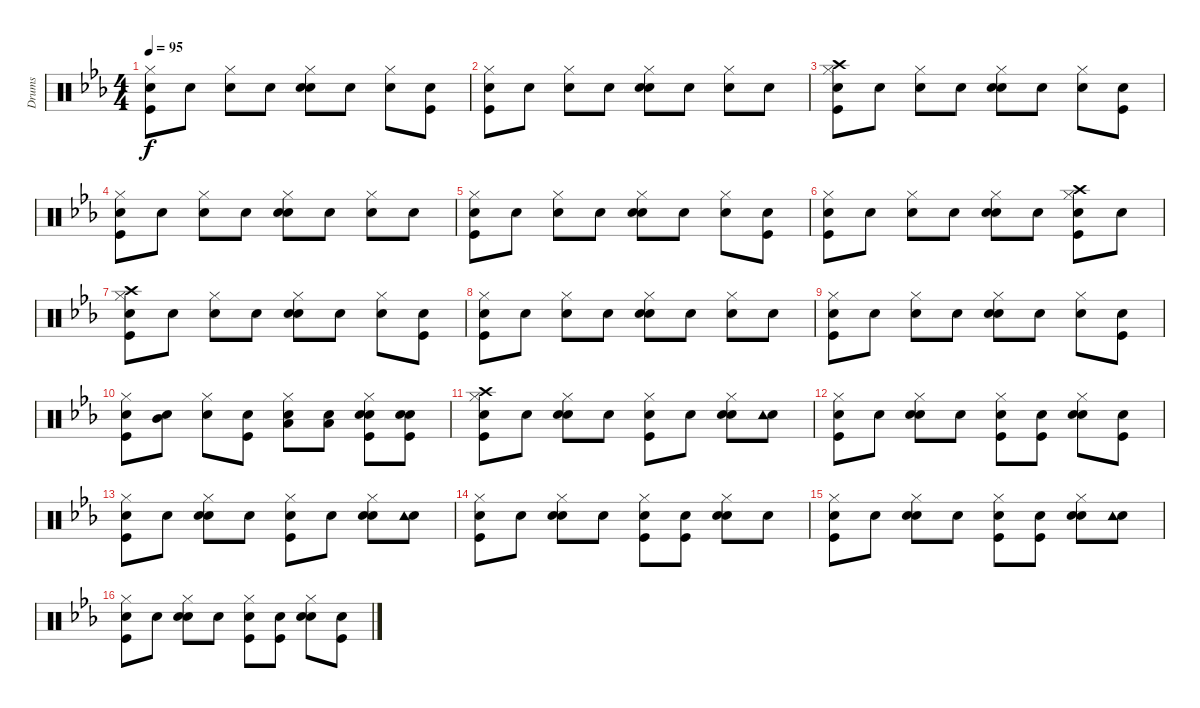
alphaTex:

\track ("Drums" "Drums") {instrument percussion}
\staff {score}
\articulation defaults
\ts (4 4)
\tempo 95
\clef neutral
\ks cminor
("Hi-Hat (closed)" "Snare (hit)" "Kick (hit)").8{dy f} "Snare (hit)".8 ("Hi-Hat (closed)" "Snare (hit)").8 "Snare (hit)".8 ("Hi-Hat (closed)" "Snare (hit)" "Snare (hit) 2").8 "Snare (hit)".8 ("Hi-Hat (closed)" "Snare (hit)").8 ("Snare (hit)" "Kick (hit)").8 |
("Hi-Hat (closed)" "Snare (hit)" "Kick (hit)").8 "Snare (hit)".8 ("Hi-Hat (closed)" "Snare (hit)").8 "Snare (hit)".8 ("Hi-Hat (closed)" "Snare (hit)" "Snare (hit) 2").8 "Snare (hit)".8 ("Hi-Hat (closed)" "Snare (hit)").8 "Snare (hit)".8 |
("Hi-Hat (closed)" "Snare (hit)" "Crash high (hit)" "Kick (hit)").8 "Snare (hit)".8 ("Hi-Hat (closed)" "Snare (hit)").8 "Snare (hit)".8 ("Hi-Hat (closed)" "Snare (hit)" "Snare (hit) 2").8 "Snare (hit)".8 ("Hi-Hat (closed)" "Snare (hit)").8 ("Snare (hit)" "Kick (hit)").8 |
("Hi-Hat (closed)" "Snare (hit)" "Kick (hit)").8 "Snare (hit)".8 ("Hi-Hat (closed)" "Snare (hit)").8 "Snare (hit)".8 ("Hi-Hat (closed)" "Snare (hit)" "Snare (hit) 2").8 "Snare (hit)".8 ("Hi-Hat (closed)" "Snare (hit)").8 "Snare (hit)".8 |
("Hi-Hat (closed)" "Snare (hit)" "Kick (hit)").8 "Snare (hit)".8 ("Hi-Hat (closed)" "Snare (hit)").8 "Snare (hit)".8 ("Hi-Hat (closed)" "Snare (hit)" "Snare (hit) 2").8 "Snare (hit)".8 ("Hi-Hat (closed)" "Snare (hit)").8 ("Snare (hit)" "Kick (hit)").8 |
("Hi-Hat (closed)" "Snare (hit)" "Kick (hit)").8 "Snare (hit)".8 ("Hi-Hat (closed)" "Snare (hit)").8 "Snare (hit)".8 ("Hi-Hat (closed)" "Snare (hit)" "Snare (hit) 2").8 "Snare (hit)".8 ("Crash high (hit)" "Hi-Hat (closed)" "Snare (hit)" "Kick (hit)").8 "Snare (hit)".8 |
("Crash high (hit)" "Hi-Hat (closed)" "Snare (hit)" "Kick (hit)").8 "Snare (hit)".8 ("Hi-Hat (closed)" "Snare (hit)").8 "Snare (hit)".8 ("Hi-Hat (closed)" "Snare (hit)" "Snare (hit) 2").8 "Snare (hit)".8 ("Hi-Hat (closed)" "Snare (hit)").8 ("Snare (hit)" "Kick (hit)").8 |
("Hi-Hat (closed)" "Snare (hit)" "Kick (hit)").8 "Snare (hit)".8 ("Hi-Hat (closed)" "Snare (hit)").8 "Snare (hit)".8 ("Hi-Hat (closed)" "Snare (hit)" "Snare (hit) 2").8 "Snare (hit)".8 ("Hi-Hat (closed)" "Snare (hit)").8 "Snare (hit)".8 |
("Hi-Hat (closed)" "Snare (hit)" "Kick (hit)").8 "Snare (hit)".8 ("Hi-Hat (closed)" "Snare (hit)").8 "Snare (hit)".8 ("Hi-Hat (closed)" "Snare (hit)" "Snare (hit) 2").8 "Snare (hit)".8 ("Hi-Hat (closed)" "Snare (hit)").8 ("Snare (hit)" "Kick (hit)").8 |
("Hi-Hat (closed)" "Snare (hit)" "Kick (hit)").8 ("Snare (hit)" "Mid Tom (hit)").8 ("Hi-Hat (closed)" "Snare (hit)").8 ("Snare (hit)" "Kick (hit)").8 ("Hi-Hat (closed)" "Snare (hit)" "Low Tom (hit)").8 ("Snare (hit)" "Low Floor Tom (hit)").8 ("Hi-Hat (closed)" "Snare (hit)" "Snare (hit) 2" "Kick (hit)").8 ("Snare (hit)" "Snare (hit) 2" "Kick (hit)").8 |
("Hi-Hat (closed)" "Snare (hit)" "Crash high (hit)" "Kick (hit)").8 "Snare (hit)".8 ("Hi-Hat (closed)" "Snare (hit)" "Snare (hit) 2").8 "Snare (hit)".8 ("Hi-Hat (closed)" "Snare (hit)" "Kick (hit)").8 "Snare (hit)".8 ("Hi-Hat (closed)" "Snare (hit)" "Snare (hit) 2").8 ("Snare (hit)" "Tambourine (hit)").8 |
("Hi-Hat (closed)" "Snare (hit)" "Kick (hit)").8 "Snare (hit)".8 ("Hi-Hat (closed)" "Snare (hit)" "Snare (hit) 2").8 "Snare (hit)".8 ("Hi-Hat (closed)" "Snare (hit)" "Kick (hit)").8 ("Snare (hit)" "Kick (hit)").8 ("Hi-Hat (closed)" "Snare (hit)" "Snare (hit) 2").8 ("Snare (hit)" "Kick (hit)").8 |
("Hi-Hat (closed)" "Snare (hit)" "Kick (hit)").8 "Snare (hit)".8 ("Hi-Hat (closed)" "Snare (hit)" "Snare (hit) 2").8 "Snare (hit)".8 ("Hi-Hat (closed)" "Snare (hit)" "Kick (hit)").8 "Snare (hit)".8 ("Hi-Hat (closed)" "Snare (hit)" "Snare (hit) 2").8 ("Snare (hit)" "Tambourine (hit)").8 |
("Hi-Hat (closed)" "Snare (hit)" "Kick (hit)").8 "Snare (hit)".8 ("Hi-Hat (closed)" "Snare (hit)" "Snare (hit) 2").8 "Snare (hit)".8 ("Hi-Hat (closed)" "Snare (hit)" "Kick (hit)").8 ("Snare (hit)" "Kick (hit)").8 ("Hi-Hat (closed)" "Snare (hit)" "Snare (hit) 2").8 "Snare (hit)".8 |
("Hi-Hat (closed)" "Snare (hit)" "Kick (hit)").8 "Snare (hit)".8 ("Hi-Hat (closed)" "Snare (hit)" "Snare (hit) 2").8 "Snare (hit)".8 ("Hi-Hat (closed)" "Snare (hit)" "Kick (hit)").8 ("Snare (hit)" "Kick (hit)").8 ("Hi-Hat (closed)" "Snare (hit)" "Snare (hit) 2").8 ("Snare (hit)" "Tambourine (hit)").8 |
("Hi-Hat (closed)" "Snare (hit)" "Kick (hit)").8 "Snare (hit)".8 ("Hi-Hat (closed)" "Snare (hit)" "Snare (hit) 2").8 "Snare (hit)".8 ("Hi-Hat (closed)" "Snare (hit)" "Kick (hit)").8 ("Snare (hit)" "Kick (hit)").8 ("Hi-Hat (closed)" "Snare (hit)" "Snare (hit) 2").8 ("Snare (hit)" "Kick (hit)").8
